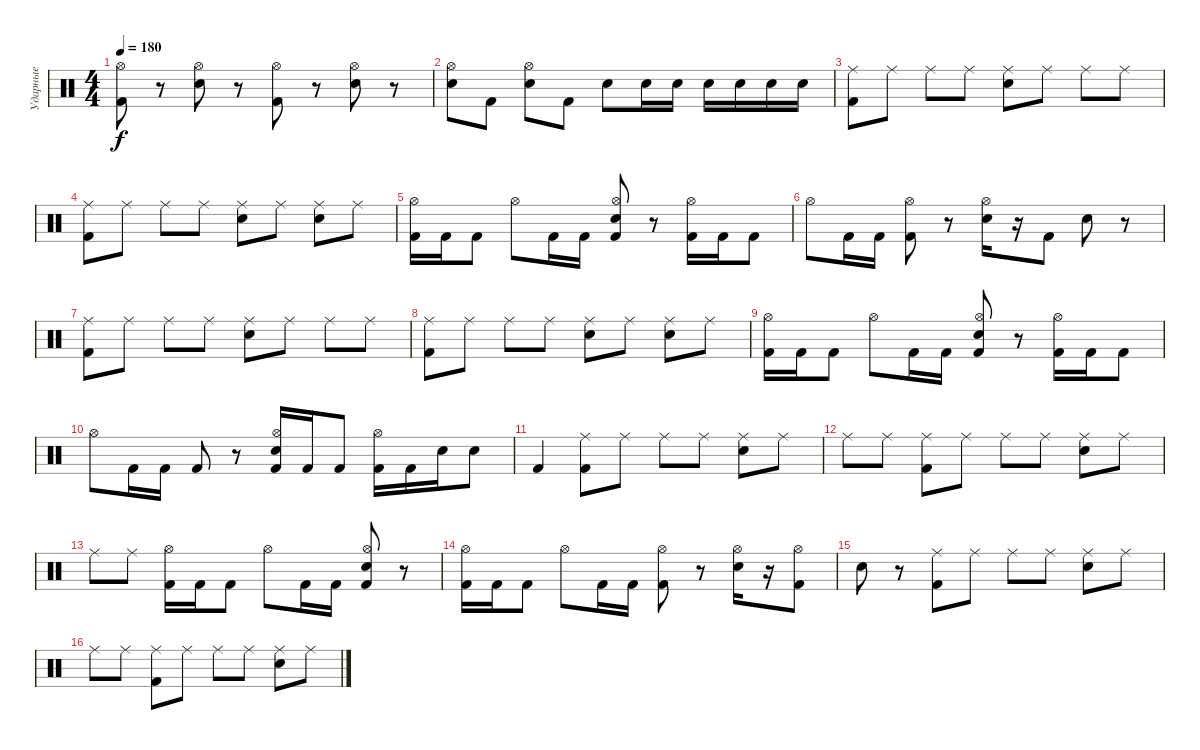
\track ("Ударные" "Ударные") {instrument percussion}
\staff {score}
\articulation defaults
\ts (4 4)
\tempo 180
\clef neutral
\ks c
("Kick (hit) 2" "Hi-Hat (open)").8{dy f} r.8 ("Electric Snare (hit)" "Hi-Hat (open)").8 r.8 ("Kick (hit) 2" "Hi-Hat (open)").8 r.8 ("Electric Snare (hit)" "Hi-Hat (open)").8 r.8 |
("Electric Snare (hit)" "Hi-Hat (open)").8 "Kick (hit) 2".8 ("Electric Snare (hit)" "Hi-Hat (open)").8 "Kick (hit) 2".8 "Electric Snare (hit)".8 "Electric Snare (hit)".16 "Electric Snare (hit)".16 "Electric Snare (hit)".16 "Electric Snare (hit)".16 "Electric Snare (hit)".16 "Electric Snare (hit)".16 |
("Kick (hit) 2" "Ride (middle)").8 "Ride (middle)".8 "Ride (middle)".8 "Ride (middle)".8 ("Electric Snare (hit)" "Ride (middle)").8 "Ride (middle)".8 "Ride (middle)".8 "Ride (middle)".8 |
("Kick (hit) 2" "Ride (middle)").8 "Ride (middle)".8 "Ride (middle)".8 "Ride (middle)".8 ("Electric Snare (hit)" "Ride (middle)").8 "Ride (middle)".8 ("Ride (middle)" "Electric Snare (hit)").8 "Ride (middle)".8 |
("Kick (hit) 2" "Hi-Hat (open)").16 "Kick (hit) 2".16 "Kick (hit) 2".8 "Hi-Hat (open)".8 "Kick (hit) 2".16 "Kick (hit) 2".16 ("Kick (hit) 2" "Electric Snare (hit)" "Hi-Hat (open)").8 r.8 ("Kick (hit) 2" "Hi-Hat (open)").16 "Kick (hit) 2".16 "Kick (hit) 2".8 |
"Hi-Hat (open)".8 "Kick (hit) 2".16 "Kick (hit) 2".16 ("Kick (hit) 2" "Hi-Hat (open)").8 r.8 ("Electric Snare (hit)" "Hi-Hat (open)").16 r.16 "Kick (hit) 2".8 "Electric Snare (hit)".8 r.8 |
("Kick (hit) 2" "Ride (middle)").8 "Ride (middle)".8 "Ride (middle)".8 "Ride (middle)".8 ("Electric Snare (hit)" "Ride (middle)").8 "Ride (middle)".8 "Ride (middle)".8 "Ride (middle)".8 |
("Kick (hit) 2" "Ride (middle)").8 "Ride (middle)".8 "Ride (middle)".8 "Ride (middle)".8 ("Electric Snare (hit)" "Ride (middle)").8 "Ride (middle)".8 ("Ride (middle)" "Electric Snare (hit)").8 "Ride (middle)".8 |
("Kick (hit) 2" "Hi-Hat (open)").16 "Kick (hit) 2".16 "Kick (hit) 2".8 "Hi-Hat (open)".8 "Kick (hit) 2".16 "Kick (hit) 2".16 ("Kick (hit) 2" "Electric Snare (hit)" "Hi-Hat (open)").8 r.8 ("Kick (hit) 2" "Hi-Hat (open)").16 "Kick (hit) 2".16 "Kick (hit) 2".8 |
"Hi-Hat (open)".8 "Kick (hit) 2".16 "Kick (hit) 2".16 "Kick (hit) 2".8 r.8 ("Kick (hit) 2" "Hi-Hat (open)" "Electric Snare (hit)").16 "Kick (hit) 2".16 "Kick (hit) 2".8 ("Kick (hit) 2" "Hi-Hat (open)").16 "Kick (hit) 2".16 "Electric Snare (hit)".16 "Electric Snare (hit)".8 |
"Kick (hit) 2".4 ("Kick (hit) 2" "Ride (middle)").8 "Ride (middle)".8 "Ride (middle)".8 "Ride (middle)".8 ("Electric Snare (hit)" "Ride (middle)").8 "Ride (middle)".8 |
"Ride (middle)".8 "Ride (middle)".8 ("Kick (hit) 2" "Ride (middle)").8 "Ride (middle)".8 "Ride (middle)".8 "Ride (middle)".8 ("Electric Snare (hit)" "Ride (middle)").8 "Ride (middle)".8 |
"Ride (middle)".8 "Ride (middle)".8 ("Kick (hit) 2" "Hi-Hat (open)").16 "Kick (hit) 2".16 "Kick (hit) 2".8 "Hi-Hat (open)".8 "Kick (hit) 2".16 "Kick (hit) 2".16 ("Kick (hit) 2" "Electric Snare (hit)" "Hi-Hat (open)").8 r.8 |
("Kick (hit) 2" "Hi-Hat (open)").16 "Kick (hit) 2".16 "Kick (hit) 2".8 "Hi-Hat (open)".8 "Kick (hit) 2".16 "Kick (hit) 2".16 ("Kick (hit) 2" "Hi-Hat (open)").8 r.8 ("Electric Snare (hit)" "Hi-Hat (open)").16 r.16 ("Kick (hit) 2" "Hi-Hat (open)").8 |
"Electric Snare (hit)".8 r.8 ("Kick (hit) 2" "Ride (middle)").8 "Ride (middle)".8 "Ride (middle)".8 "Ride (middle)".8 ("Electric Snare (hit)" "Ride (middle)").8 "Ride (middle)".8 |
"Ride (middle)".8 "Ride (middle)".8 ("Kick (hit) 2" "Ride (middle)").8 "Ride (middle)".8 "Ride (middle)".8 "Ride (middle)".8 ("Electric Snare (hit)" "Ride (middle)").8 "Ride (middle)".8
